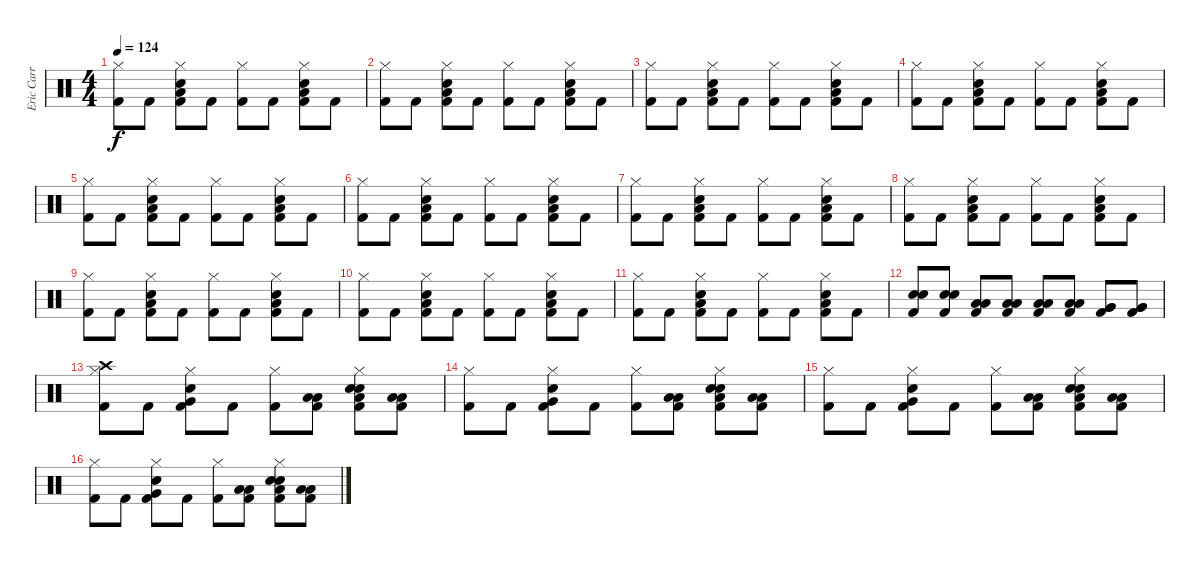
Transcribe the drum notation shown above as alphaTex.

\track ("Eric Carr" "Eric Carr") {instrument percussion}
\staff {score}
\articulation defaults
\ts (4 4)
\tempo 124
\clef neutral
\ks c
("Hi-Hat (closed)" "Kick (hit) 2").8{dy f} "Kick (hit) 2".8 ("Hi-Hat (closed)" "Snare (hit) 2" "Low Floor Tom (hit)" "Kick (hit) 2").8 "Kick (hit) 2".8 ("Hi-Hat (closed)" "Kick (hit) 2").8 "Kick (hit) 2".8 ("Hi-Hat (closed)" "Snare (hit) 2" "Low Floor Tom (hit)" "Kick (hit) 2").8 "Kick (hit) 2".8 |
("Hi-Hat (closed)" "Kick (hit) 2").8 "Kick (hit) 2".8 ("Hi-Hat (closed)" "Snare (hit) 2" "Low Floor Tom (hit)" "Kick (hit) 2").8 "Kick (hit) 2".8 ("Hi-Hat (closed)" "Kick (hit) 2").8 "Kick (hit) 2".8 ("Hi-Hat (closed)" "Snare (hit) 2" "Low Floor Tom (hit)" "Kick (hit) 2").8 "Kick (hit) 2".8 |
("Hi-Hat (closed)" "Kick (hit) 2").8 "Kick (hit) 2".8 ("Hi-Hat (closed)" "Snare (hit) 2" "Low Floor Tom (hit)" "Kick (hit) 2").8 "Kick (hit) 2".8 ("Hi-Hat (closed)" "Kick (hit) 2").8 "Kick (hit) 2".8 ("Hi-Hat (closed)" "Snare (hit) 2" "Low Floor Tom (hit)" "Kick (hit) 2").8 "Kick (hit) 2".8 |
("Hi-Hat (closed)" "Kick (hit) 2").8 "Kick (hit) 2".8 ("Hi-Hat (closed)" "Snare (hit) 2" "Low Floor Tom (hit)" "Kick (hit) 2").8 "Kick (hit) 2".8 ("Hi-Hat (closed)" "Kick (hit) 2").8 "Kick (hit) 2".8 ("Hi-Hat (closed)" "Snare (hit) 2" "Low Floor Tom (hit)" "Kick (hit) 2").8 "Kick (hit) 2".8 |
("Hi-Hat (closed)" "Kick (hit) 2").8 "Kick (hit) 2".8 ("Hi-Hat (closed)" "Snare (hit) 2" "Low Floor Tom (hit)" "Kick (hit) 2").8 "Kick (hit) 2".8 ("Hi-Hat (closed)" "Kick (hit) 2").8 "Kick (hit) 2".8 ("Hi-Hat (closed)" "Snare (hit) 2" "Low Floor Tom (hit)" "Kick (hit) 2").8 "Kick (hit) 2".8 |
("Hi-Hat (closed)" "Kick (hit) 2").8 "Kick (hit) 2".8 ("Hi-Hat (closed)" "Snare (hit) 2" "Low Floor Tom (hit)" "Kick (hit) 2").8 "Kick (hit) 2".8 ("Hi-Hat (closed)" "Kick (hit) 2").8 "Kick (hit) 2".8 ("Hi-Hat (closed)" "Snare (hit) 2" "Low Floor Tom (hit)" "Kick (hit) 2").8 "Kick (hit) 2".8 |
("Hi-Hat (closed)" "Kick (hit) 2").8 "Kick (hit) 2".8 ("Hi-Hat (closed)" "Snare (hit) 2" "Low Floor Tom (hit)" "Kick (hit) 2").8 "Kick (hit) 2".8 ("Hi-Hat (closed)" "Kick (hit) 2").8 "Kick (hit) 2".8 ("Hi-Hat (closed)" "Snare (hit) 2" "Low Floor Tom (hit)" "Kick (hit) 2").8 "Kick (hit) 2".8 |
("Hi-Hat (closed)" "Kick (hit) 2").8 "Kick (hit) 2".8 ("Hi-Hat (closed)" "Snare (hit) 2" "Low Floor Tom (hit)" "Kick (hit) 2").8 "Kick (hit) 2".8 ("Hi-Hat (closed)" "Kick (hit) 2").8 "Kick (hit) 2".8 ("Hi-Hat (closed)" "Snare (hit) 2" "Low Floor Tom (hit)" "Kick (hit) 2").8 "Kick (hit) 2".8 |
("Hi-Hat (closed)" "Kick (hit) 2").8 "Kick (hit) 2".8 ("Hi-Hat (closed)" "Snare (hit) 2" "Low Floor Tom (hit)" "Kick (hit) 2").8 "Kick (hit) 2".8 ("Hi-Hat (closed)" "Kick (hit) 2").8 "Kick (hit) 2".8 ("Hi-Hat (closed)" "Snare (hit) 2" "Low Floor Tom (hit)" "Kick (hit) 2").8 "Kick (hit) 2".8 |
("Hi-Hat (closed)" "Kick (hit) 2").8 "Kick (hit) 2".8 ("Hi-Hat (closed)" "Snare (hit) 2" "Low Floor Tom (hit)" "Kick (hit) 2").8 "Kick (hit) 2".8 ("Hi-Hat (closed)" "Kick (hit) 2").8 "Kick (hit) 2".8 ("Hi-Hat (closed)" "Snare (hit) 2" "Low Floor Tom (hit)" "Kick (hit) 2").8 "Kick (hit) 2".8 |
("Hi-Hat (closed)" "Kick (hit) 2").8 "Kick (hit) 2".8 ("Hi-Hat (closed)" "Snare (hit) 2" "Low Floor Tom (hit)" "Kick (hit) 2").8 "Kick (hit) 2".8 ("Hi-Hat (closed)" "Kick (hit) 2").8 "Kick (hit) 2".8 ("Hi-Hat (closed)" "Snare (hit) 2" "Low Floor Tom (hit)" "Kick (hit) 2").8 "Kick (hit) 2".8 |
("Snare (hit) 2" "Snare (hit) 2" "Kick (hit) 2").8 ("Snare (hit) 2" "Snare (hit) 2" "Kick (hit) 2").8 ("Low Tom (hit)" "Low Tom (hit)" "Kick (hit) 2").8 ("Low Tom (hit)" "Low Tom (hit)" "Kick (hit) 2").8 ("Low Floor Tom (hit)" "Low Floor Tom (hit)" "Kick (hit) 2").8 ("Low Floor Tom (hit)" "Low Floor Tom (hit)" "Kick (hit) 2").8 ("Very Low Tom (hit)" "Very Low Tom (hit)" "Kick (hit) 2").8 ("Very Low Tom (hit)" "Very Low Tom (hit)" "Kick (hit) 2").8 |
("Hi-Hat (closed)" "Crash high (hit)" "Kick (hit) 2").8 "Kick (hit) 2".8 ("Hi-Hat (closed)" "Very Low Tom (hit)" "Snare (hit) 2" "Kick (hit) 2").8 "Kick (hit) 2".8 ("Hi-Hat (closed)" "Kick (hit) 2").8 ("Low Tom (hit)" "Low Tom (hit)" "Kick (hit) 2").8 ("Hi-Hat (closed)" "Snare (hit) 2" "Low Floor Tom (hit)" "Snare (hit) 2" "Kick (hit) 2").8 ("Low Tom (hit)" "Low Tom (hit)" "Kick (hit) 2").8 |
("Hi-Hat (closed)" "Kick (hit) 2").8 "Kick (hit) 2".8 ("Hi-Hat (closed)" "Very Low Tom (hit)" "Snare (hit) 2" "Kick (hit) 2").8 "Kick (hit) 2".8 ("Hi-Hat (closed)" "Kick (hit) 2").8 ("Low Tom (hit)" "Low Tom (hit)" "Kick (hit) 2").8 ("Hi-Hat (closed)" "Snare (hit) 2" "Low Floor Tom (hit)" "Snare (hit) 2" "Kick (hit) 2").8 ("Low Tom (hit)" "Low Tom (hit)" "Kick (hit) 2").8 |
("Hi-Hat (closed)" "Kick (hit) 2").8 "Kick (hit) 2".8 ("Hi-Hat (closed)" "Very Low Tom (hit)" "Snare (hit) 2" "Kick (hit) 2").8 "Kick (hit) 2".8 ("Hi-Hat (closed)" "Kick (hit) 2").8 ("Low Tom (hit)" "Low Tom (hit)" "Kick (hit) 2").8 ("Hi-Hat (closed)" "Snare (hit) 2" "Low Floor Tom (hit)" "Snare (hit) 2" "Kick (hit) 2").8 ("Low Tom (hit)" "Low Tom (hit)" "Kick (hit) 2").8 |
("Hi-Hat (closed)" "Kick (hit) 2").8 "Kick (hit) 2".8 ("Hi-Hat (closed)" "Very Low Tom (hit)" "Snare (hit) 2" "Kick (hit) 2").8 "Kick (hit) 2".8 ("Hi-Hat (closed)" "Kick (hit) 2").8 ("Low Tom (hit)" "Low Tom (hit)" "Kick (hit) 2").8 ("Hi-Hat (closed)" "Snare (hit) 2" "Low Floor Tom (hit)" "Snare (hit) 2" "Kick (hit) 2").8 ("Low Tom (hit)" "Low Tom (hit)" "Kick (hit) 2").8
